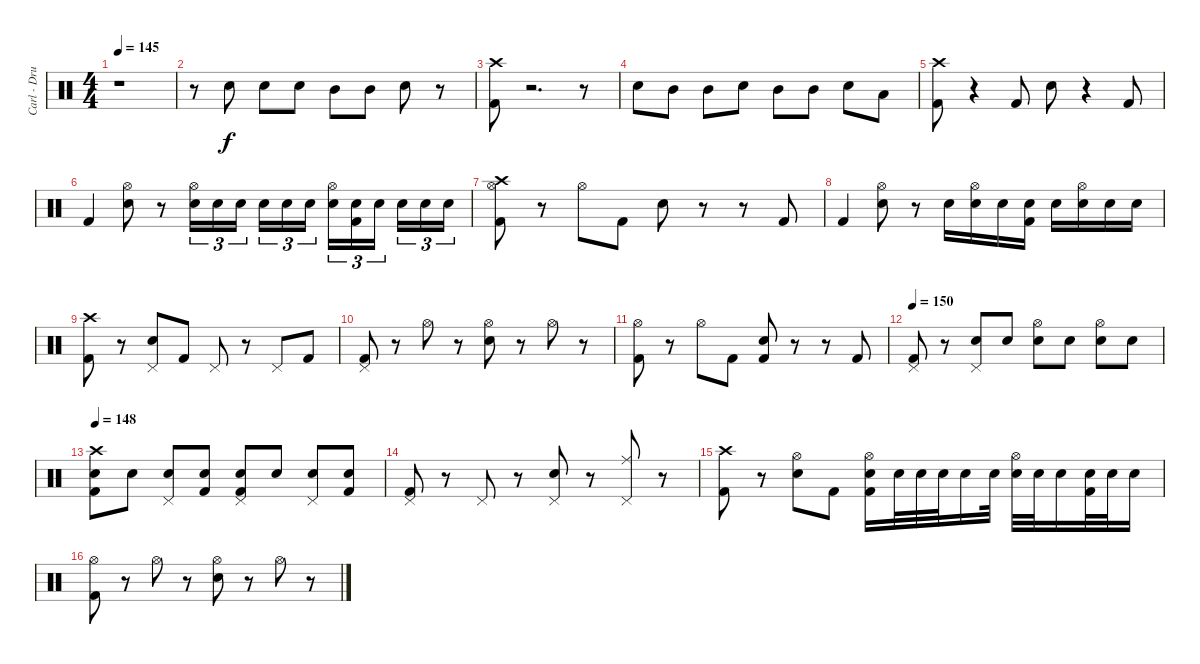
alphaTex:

\track ("Carl - Drums" "Carl - Dru") {instrument percussion}
\staff {score}
\articulation defaults
\ts (4 4)
\tempo 145
\clef neutral
\ks c
r.1{dy f} |
r.8 "Electric Snare (hit)".8{volume 13} "Electric Snare (hit)".8 "Electric Snare (hit)".8 "Mid Tom (hit)".8 "Mid Tom (hit)".8 "Electric Snare (hit)".8 r.8 |
("Kick (hit) 2" "Crash high (hit)").8 r.2{d} r.8 |
"Electric Snare (hit)".8 "Mid Tom (hit)".8 "Mid Tom (hit)".8 "Electric Snare (hit)".8 "Mid Tom (hit)".8 "Mid Tom (hit)".8 "Electric Snare (hit)".8 "Low Tom (hit)".8 |
("Kick (hit) 2" "Crash high (hit)").8 r.4 "Kick (hit) 2".8 "Electric Snare (hit)".8 r.4 "Kick (hit) 2".8 |
"Kick (hit) 2".4 ("Electric Snare (hit)" "Hi-Hat (open)").8 r.8 ("Electric Snare (hit)" "Hi-Hat (open)").16{tu (3 2)} "Electric Snare (hit)".16{tu (3 2)} "Electric Snare (hit)".16{tu (3 2)} "Electric Snare (hit)".16{tu (3 2)} "Electric Snare (hit)".16{tu (3 2)} "Electric Snare (hit)".16{tu (3 2)} ("Electric Snare (hit)" "Hi-Hat (open)").16{tu (3 2)} ("Electric Snare (hit)" "Kick (hit) 2").16{tu (3 2)} "Electric Snare (hit)".16{tu (3 2)} "Electric Snare (hit)".16{tu (3 2)} "Electric Snare (hit)".16{tu (3 2)} "Electric Snare (hit)".16{tu (3 2)} |
("Hi-Hat (open)" "Kick (hit) 2" "Crash high (hit)").8 r.8 "Hi-Hat (open)".8 "Kick (hit) 2".8 "Electric Snare (hit)".8 r.8 r.8 "Kick (hit) 2".8 |
"Kick (hit) 2".4 ("Electric Snare (hit)" "Hi-Hat (open)").8 r.8 "Electric Snare (hit)".16 ("Electric Snare (hit)" "Hi-Hat (open)").16 "Electric Snare (hit)".16 ("Electric Snare (hit)" "Kick (hit) 2").16 "Electric Snare (hit)".16 ("Electric Snare (hit)" "Hi-Hat (open)").16 "Electric Snare (hit)".16 "Electric Snare (hit)".16 |
("Kick (hit) 2" "Crash high (hit)").8 r.8 ("Electric Snare (hit)" "Pedal Hi-Hat (hit)").8 "Kick (hit) 2".8 "Pedal Hi-Hat (hit)".8 r.8 "Pedal Hi-Hat (hit)".8 "Kick (hit) 2".8 |
("Pedal Hi-Hat (hit)" "Kick (hit) 2").8 r.8 "Hi-Hat (open)".8 r.8 ("Electric Snare (hit)" "Hi-Hat (open)").8 r.8 "Hi-Hat (open)".8 r.8 |
("Hi-Hat (open)" "Kick (hit) 2").8 r.8 "Hi-Hat (open)".8 "Kick (hit) 2".8 ("Electric Snare (hit)" "Kick (hit) 2").8 r.8 r.8 "Kick (hit) 2".8 |
\tempo 150
("Pedal Hi-Hat (hit)" "Kick (hit) 2").8 r.8 ("Electric Snare (hit)" "Pedal Hi-Hat (hit)").8 "Electric Snare (hit)".8 ("Electric Snare (hit)" "Hi-Hat (open)").8 "Electric Snare (hit)".8 ("Electric Snare (hit)" "Hi-Hat (open)").8 "Electric Snare (hit)".8 |
\tempo 148
("Electric Snare (hit)" "Kick (hit) 2" "Crash high (hit)").8 "Electric Snare (hit)".8 ("Electric Snare (hit)" "Pedal Hi-Hat (hit)").8 ("Electric Snare (hit)" "Kick (hit) 2").8 ("Electric Snare (hit)" "Pedal Hi-Hat (hit)" "Kick (hit) 2").8 "Electric Snare (hit)".8 ("Electric Snare (hit)" "Pedal Hi-Hat (hit)").8 ("Electric Snare (hit)" "Kick (hit) 2").8 |
("Pedal Hi-Hat (hit)" "Kick (hit) 2").8 r.8 "Pedal Hi-Hat (hit)".8 r.8 ("Electric Snare (hit)" "Pedal Hi-Hat (hit)").8 r.8 ("Pedal Hi-Hat (hit)" "Ride (middle)").8 r.8 |
("Kick (hit) 2" "Crash high (hit)").8 r.8 ("Electric Snare (hit)" "Hi-Hat (open)").8 "Kick (hit) 2".8 ("Electric Snare (hit)" "Hi-Hat (open)" "Kick (hit) 2").16 "Electric Snare (hit)".32 "Electric Snare (hit)".32 "Electric Snare (hit)".32 "Electric Snare (hit)".16 "Electric Snare (hit)".32 ("Electric Snare (hit)" "Hi-Hat (open)").32 "Electric Snare (hit)".32 "Electric Snare (hit)".16 ("Electric Snare (hit)" "Kick (hit) 2").32 "Electric Snare (hit)".32 "Electric Snare (hit)".16 |
("Hi-Hat (open)" "Kick (hit) 2").8 r.8 "Hi-Hat (open)".8 r.8 ("Electric Snare (hit)" "Hi-Hat (open)").8 r.8 "Hi-Hat (open)".8 r.8
